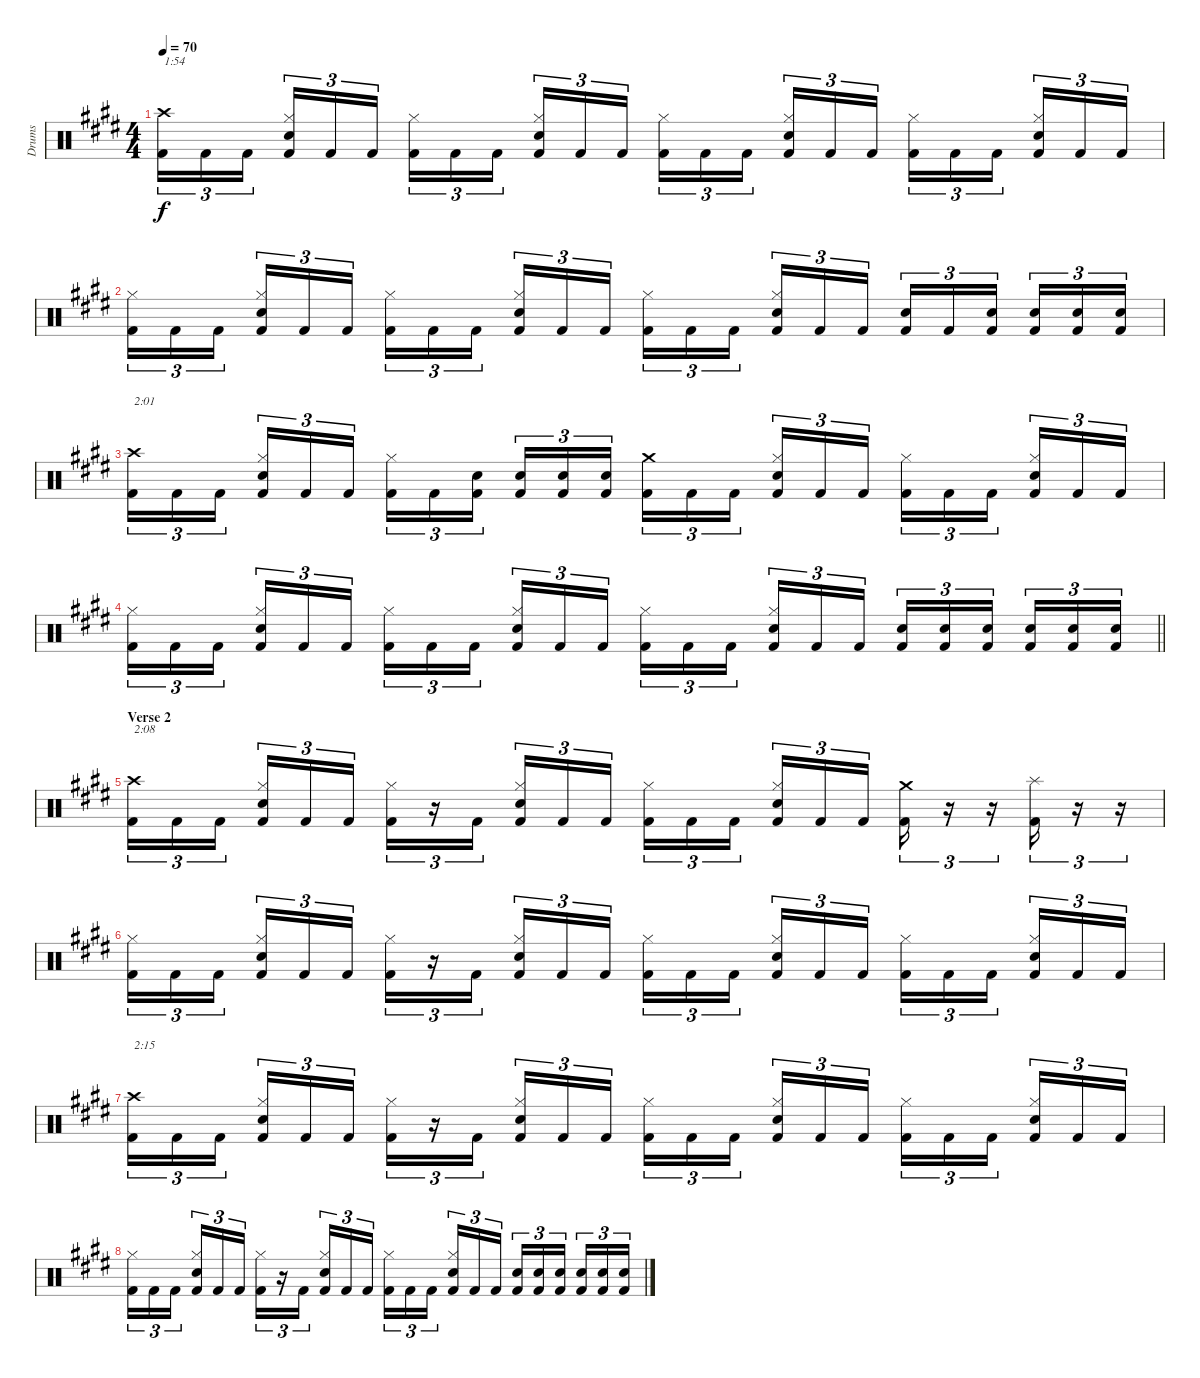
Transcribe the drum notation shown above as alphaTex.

\track ("Drums" "Drums") {instrument percussion}
\staff {score}
\articulation defaults
\ts (4 4)
\tempo 70
\clef neutral
\ks c#minor
("Crash high (hit)" "Kick (hit) 2").16{tu (3 2) txt "1:54" dy f} "Kick (hit) 2".16{tu (3 2)} "Kick (hit) 2".16{tu (3 2) beam splitsecondary} ("Hi-Hat (closed)" "Snare (hit) 2" "Kick (hit) 2").16{tu (3 2)} "Kick (hit) 2".16{tu (3 2)} "Kick (hit) 2".16{tu (3 2)} ("Hi-Hat (closed)" "Kick (hit) 2").16{tu (3 2)} "Kick (hit) 2".16{tu (3 2)} "Kick (hit) 2".16{tu (3 2) beam splitsecondary} ("Hi-Hat (closed)" "Snare (hit) 2" "Kick (hit) 2").16{tu (3 2)} "Kick (hit) 2".16{tu (3 2)} "Kick (hit) 2".16{tu (3 2)} ("Hi-Hat (closed)" "Kick (hit) 2").16{tu (3 2)} "Kick (hit) 2".16{tu (3 2)} "Kick (hit) 2".16{tu (3 2) beam splitsecondary} ("Hi-Hat (closed)" "Snare (hit) 2" "Kick (hit) 2").16{tu (3 2)} "Kick (hit) 2".16{tu (3 2)} "Kick (hit) 2".16{tu (3 2)} ("Hi-Hat (closed)" "Kick (hit) 2").16{tu (3 2)} "Kick (hit) 2".16{tu (3 2)} "Kick (hit) 2".16{tu (3 2) beam splitsecondary} ("Hi-Hat (closed)" "Snare (hit) 2" "Kick (hit) 2").16{tu (3 2)} "Kick (hit) 2".16{tu (3 2)} "Kick (hit) 2".16{tu (3 2)} |
("Hi-Hat (closed)" "Kick (hit) 2").16{tu (3 2)} "Kick (hit) 2".16{tu (3 2)} "Kick (hit) 2".16{tu (3 2) beam splitsecondary} ("Hi-Hat (closed)" "Snare (hit) 2" "Kick (hit) 2").16{tu (3 2)} "Kick (hit) 2".16{tu (3 2)} "Kick (hit) 2".16{tu (3 2)} ("Hi-Hat (closed)" "Kick (hit) 2").16{tu (3 2)} "Kick (hit) 2".16{tu (3 2)} "Kick (hit) 2".16{tu (3 2) beam splitsecondary} ("Hi-Hat (closed)" "Snare (hit) 2" "Kick (hit) 2").16{tu (3 2)} "Kick (hit) 2".16{tu (3 2)} "Kick (hit) 2".16{tu (3 2)} ("Hi-Hat (closed)" "Kick (hit) 2").16{tu (3 2)} "Kick (hit) 2".16{tu (3 2)} "Kick (hit) 2".16{tu (3 2) beam splitsecondary} ("Hi-Hat (closed)" "Snare (hit) 2" "Kick (hit) 2").16{tu (3 2)} "Kick (hit) 2".16{tu (3 2)} "Kick (hit) 2".16{tu (3 2)} ("Snare (hit) 2" "Kick (hit) 2").16{tu (3 2)} "Kick (hit) 2".16{tu (3 2)} ("Snare (hit) 2" "Kick (hit) 2").16{tu (3 2) beam splitsecondary} ("Snare (hit) 2" "Kick (hit) 2").16{tu (3 2)} ("Snare (hit) 2" "Kick (hit) 2").16{tu (3 2)} ("Snare (hit) 2" "Kick (hit) 2").16{tu (3 2)} |
("Crash high (hit)" "Kick (hit) 2").16{tu (3 2) txt "2:01"} "Kick (hit) 2".16{tu (3 2)} "Kick (hit) 2".16{tu (3 2) beam splitsecondary} ("Hi-Hat (closed)" "Snare (hit) 2" "Kick (hit) 2").16{tu (3 2)} "Kick (hit) 2".16{tu (3 2)} "Kick (hit) 2".16{tu (3 2)} ("Hi-Hat (closed)" "Kick (hit) 2").16{tu (3 2)} "Kick (hit) 2".16{tu (3 2)} ("Snare (hit) 2" "Kick (hit) 2").16{tu (3 2) beam splitsecondary} ("Snare (hit) 2" "Kick (hit) 2").16{tu (3 2)} ("Snare (hit) 2" "Kick (hit) 2").16{tu (3 2)} ("Snare (hit) 2" "Kick (hit) 2").16{tu (3 2)} ("Crash medium (hit)" "Kick (hit) 2").16{tu (3 2)} "Kick (hit) 2".16{tu (3 2)} "Kick (hit) 2".16{tu (3 2) beam splitsecondary} ("Hi-Hat (closed)" "Snare (hit) 2" "Kick (hit) 2").16{tu (3 2)} "Kick (hit) 2".16{tu (3 2)} "Kick (hit) 2".16{tu (3 2)} ("Hi-Hat (closed)" "Kick (hit) 2").16{tu (3 2)} "Kick (hit) 2".16{tu (3 2)} "Kick (hit) 2".16{tu (3 2) beam splitsecondary} ("Hi-Hat (closed)" "Snare (hit) 2" "Kick (hit) 2").16{tu (3 2)} "Kick (hit) 2".16{tu (3 2)} "Kick (hit) 2".16{tu (3 2)} |
\barLineRight lightlight
("Hi-Hat (closed)" "Kick (hit) 2").16{tu (3 2)} "Kick (hit) 2".16{tu (3 2)} "Kick (hit) 2".16{tu (3 2) beam splitsecondary} ("Hi-Hat (closed)" "Snare (hit) 2" "Kick (hit) 2").16{tu (3 2)} "Kick (hit) 2".16{tu (3 2)} "Kick (hit) 2".16{tu (3 2)} ("Hi-Hat (closed)" "Kick (hit) 2").16{tu (3 2)} "Kick (hit) 2".16{tu (3 2)} "Kick (hit) 2".16{tu (3 2) beam splitsecondary} ("Hi-Hat (closed)" "Snare (hit) 2" "Kick (hit) 2").16{tu (3 2)} "Kick (hit) 2".16{tu (3 2)} "Kick (hit) 2".16{tu (3 2)} ("Hi-Hat (closed)" "Kick (hit) 2").16{tu (3 2)} "Kick (hit) 2".16{tu (3 2)} "Kick (hit) 2".16{tu (3 2) beam splitsecondary} ("Hi-Hat (closed)" "Snare (hit) 2" "Kick (hit) 2").16{tu (3 2)} "Kick (hit) 2".16{tu (3 2)} "Kick (hit) 2".16{tu (3 2)} ("Snare (hit) 2" "Kick (hit) 2").16{tu (3 2)} ("Snare (hit) 2" "Kick (hit) 2").16{tu (3 2)} ("Snare (hit) 2" "Kick (hit) 2").16{tu (3 2) beam splitsecondary} ("Snare (hit) 2" "Kick (hit) 2").16{tu (3 2)} ("Snare (hit) 2" "Kick (hit) 2").16{tu (3 2)} ("Snare (hit) 2" "Kick (hit) 2").16{tu (3 2)} |
\section ("" "Verse 2")
("Crash high (hit)" "Kick (hit) 2").16{tu (3 2) txt "2:08"} "Kick (hit) 2".16{tu (3 2)} "Kick (hit) 2".16{tu (3 2) beam splitsecondary} ("Hi-Hat (closed)" "Snare (hit) 2" "Kick (hit) 2").16{tu (3 2)} "Kick (hit) 2".16{tu (3 2)} "Kick (hit) 2".16{tu (3 2)} ("Hi-Hat (closed)" "Kick (hit) 2").16{tu (3 2)} r.16{tu (3 2)} "Kick (hit) 2".16{tu (3 2) beam splitsecondary} ("Hi-Hat (closed)" "Snare (hit) 2" "Kick (hit) 2").16{tu (3 2)} "Kick (hit) 2".16{tu (3 2)} "Kick (hit) 2".16{tu (3 2)} ("Hi-Hat (closed)" "Kick (hit) 2").16{tu (3 2)} "Kick (hit) 2".16{tu (3 2)} "Kick (hit) 2".16{tu (3 2) beam splitsecondary} ("Hi-Hat (closed)" "Snare (hit) 2" "Kick (hit) 2").16{tu (3 2)} "Kick (hit) 2".16{tu (3 2)} "Kick (hit) 2".16{tu (3 2)} ("Crash medium (hit)" "Kick (hit) 2").16{tu (3 2)} r.16{tu (3 2)} r.16{tu (3 2)} ("Splash (hit)" "Kick (hit) 2").16{tu (3 2)} r.16{tu (3 2)} r.16{tu (3 2)} |
("Hi-Hat (closed)" "Kick (hit) 2").16{tu (3 2)} "Kick (hit) 2".16{tu (3 2)} "Kick (hit) 2".16{tu (3 2) beam splitsecondary} ("Hi-Hat (closed)" "Snare (hit) 2" "Kick (hit) 2").16{tu (3 2)} "Kick (hit) 2".16{tu (3 2)} "Kick (hit) 2".16{tu (3 2)} ("Hi-Hat (closed)" "Kick (hit) 2").16{tu (3 2)} r.16{tu (3 2)} "Kick (hit) 2".16{tu (3 2) beam splitsecondary} ("Hi-Hat (closed)" "Snare (hit) 2" "Kick (hit) 2").16{tu (3 2)} "Kick (hit) 2".16{tu (3 2)} "Kick (hit) 2".16{tu (3 2)} ("Hi-Hat (closed)" "Kick (hit) 2").16{tu (3 2)} "Kick (hit) 2".16{tu (3 2)} "Kick (hit) 2".16{tu (3 2) beam splitsecondary} ("Hi-Hat (closed)" "Snare (hit) 2" "Kick (hit) 2").16{tu (3 2)} "Kick (hit) 2".16{tu (3 2)} "Kick (hit) 2".16{tu (3 2)} ("Hi-Hat (closed)" "Kick (hit) 2").16{tu (3 2)} "Kick (hit) 2".16{tu (3 2)} "Kick (hit) 2".16{tu (3 2) beam splitsecondary} ("Hi-Hat (closed)" "Snare (hit) 2" "Kick (hit) 2").16{tu (3 2)} "Kick (hit) 2".16{tu (3 2)} "Kick (hit) 2".16{tu (3 2)} |
("Crash high (hit)" "Kick (hit) 2").16{tu (3 2) txt "2:15"} "Kick (hit) 2".16{tu (3 2)} "Kick (hit) 2".16{tu (3 2) beam splitsecondary} ("Hi-Hat (closed)" "Snare (hit) 2" "Kick (hit) 2").16{tu (3 2)} "Kick (hit) 2".16{tu (3 2)} "Kick (hit) 2".16{tu (3 2)} ("Hi-Hat (closed)" "Kick (hit) 2").16{tu (3 2)} r.16{tu (3 2)} "Kick (hit) 2".16{tu (3 2) beam splitsecondary} ("Hi-Hat (closed)" "Snare (hit) 2" "Kick (hit) 2").16{tu (3 2)} "Kick (hit) 2".16{tu (3 2)} "Kick (hit) 2".16{tu (3 2)} ("Hi-Hat (closed)" "Kick (hit) 2").16{tu (3 2)} "Kick (hit) 2".16{tu (3 2)} "Kick (hit) 2".16{tu (3 2) beam splitsecondary} ("Hi-Hat (closed)" "Snare (hit) 2" "Kick (hit) 2").16{tu (3 2)} "Kick (hit) 2".16{tu (3 2)} "Kick (hit) 2".16{tu (3 2)} ("Hi-Hat (closed)" "Kick (hit) 2").16{tu (3 2)} "Kick (hit) 2".16{tu (3 2)} "Kick (hit) 2".16{tu (3 2) beam splitsecondary} ("Hi-Hat (closed)" "Snare (hit) 2" "Kick (hit) 2").16{tu (3 2)} "Kick (hit) 2".16{tu (3 2)} "Kick (hit) 2".16{tu (3 2)} |
("Hi-Hat (closed)" "Kick (hit) 2").16{tu (3 2)} "Kick (hit) 2".16{tu (3 2)} "Kick (hit) 2".16{tu (3 2) beam splitsecondary} ("Hi-Hat (closed)" "Snare (hit) 2" "Kick (hit) 2").16{tu (3 2)} "Kick (hit) 2".16{tu (3 2)} "Kick (hit) 2".16{tu (3 2)} ("Hi-Hat (closed)" "Kick (hit) 2").16{tu (3 2)} r.16{tu (3 2)} "Kick (hit) 2".16{tu (3 2) beam splitsecondary} ("Hi-Hat (closed)" "Snare (hit) 2" "Kick (hit) 2").16{tu (3 2)} "Kick (hit) 2".16{tu (3 2)} "Kick (hit) 2".16{tu (3 2)} ("Hi-Hat (closed)" "Kick (hit) 2").16{tu (3 2)} "Kick (hit) 2".16{tu (3 2)} "Kick (hit) 2".16{tu (3 2) beam splitsecondary} ("Hi-Hat (closed)" "Snare (hit) 2" "Kick (hit) 2").16{tu (3 2)} "Kick (hit) 2".16{tu (3 2)} "Kick (hit) 2".16{tu (3 2)} ("Snare (hit) 2" "Kick (hit) 2").16{tu (3 2)} ("Snare (hit) 2" "Kick (hit) 2").16{tu (3 2)} ("Snare (hit) 2" "Kick (hit) 2").16{tu (3 2) beam splitsecondary} ("Snare (hit) 2" "Kick (hit) 2").16{tu (3 2)} ("Snare (hit) 2" "Kick (hit) 2").16{tu (3 2)} ("Snare (hit) 2" "Kick (hit) 2").16{tu (3 2)}
